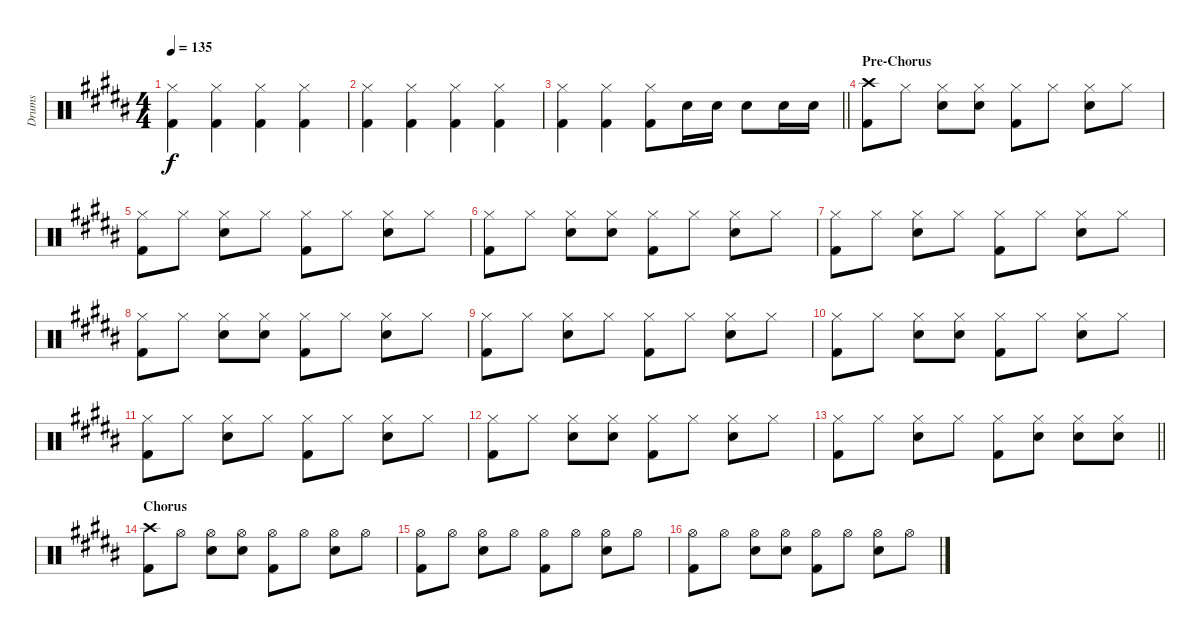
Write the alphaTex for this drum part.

\track ("Drums" "Drums") {instrument percussion}
\staff {score}
\articulation defaults
\ts (4 4)
\tempo 135
\clef neutral
\ks b
("Hi-Hat (closed)" "Kick (hit) 2").4{dy f} ("Hi-Hat (closed)" "Kick (hit) 2").4 ("Hi-Hat (closed)" "Kick (hit) 2").4 ("Hi-Hat (closed)" "Kick (hit) 2").4 |
("Hi-Hat (closed)" "Kick (hit) 2").4 ("Hi-Hat (closed)" "Kick (hit) 2").4 ("Hi-Hat (closed)" "Kick (hit) 2").4 ("Hi-Hat (closed)" "Kick (hit) 2").4 |
\barLineRight lightlight
("Hi-Hat (closed)" "Kick (hit) 2").4 ("Hi-Hat (closed)" "Kick (hit) 2").4 ("Hi-Hat (closed)" "Kick (hit) 2").8 "Snare (hit) 2".16 "Snare (hit) 2".16 "Snare (hit) 2".8 "Snare (hit) 2".16 "Snare (hit) 2".16 |
\section ("" "Pre-Chorus")
("Crash high (hit)" "Kick (hit) 2").8 "Hi-Hat (closed)".8 ("Hi-Hat (closed)" "Snare (hit) 2").8 ("Hi-Hat (closed)" "Snare (hit) 2").8 ("Hi-Hat (closed)" "Kick (hit) 2").8 "Hi-Hat (closed)".8 ("Hi-Hat (closed)" "Snare (hit) 2").8 "Hi-Hat (closed)".8 |
("Hi-Hat (closed)" "Kick (hit) 2").8 "Hi-Hat (closed)".8 ("Hi-Hat (closed)" "Snare (hit) 2").8 "Hi-Hat (closed)".8 ("Hi-Hat (closed)" "Kick (hit) 2").8 "Hi-Hat (closed)".8 ("Hi-Hat (closed)" "Snare (hit) 2").8 "Hi-Hat (closed)".8 |
("Hi-Hat (closed)" "Kick (hit) 2").8 "Hi-Hat (closed)".8 ("Hi-Hat (closed)" "Snare (hit) 2").8 ("Hi-Hat (closed)" "Snare (hit) 2").8 ("Hi-Hat (closed)" "Kick (hit) 2").8 "Hi-Hat (closed)".8 ("Hi-Hat (closed)" "Snare (hit) 2").8 "Hi-Hat (closed)".8 |
("Hi-Hat (closed)" "Kick (hit) 2").8 "Hi-Hat (closed)".8 ("Hi-Hat (closed)" "Snare (hit) 2").8 "Hi-Hat (closed)".8 ("Hi-Hat (closed)" "Kick (hit) 2").8 "Hi-Hat (closed)".8 ("Hi-Hat (closed)" "Snare (hit) 2").8 "Hi-Hat (closed)".8 |
("Hi-Hat (closed)" "Kick (hit) 2").8 "Hi-Hat (closed)".8 ("Hi-Hat (closed)" "Snare (hit) 2").8 ("Hi-Hat (closed)" "Snare (hit) 2").8 ("Hi-Hat (closed)" "Kick (hit) 2").8 "Hi-Hat (closed)".8 ("Hi-Hat (closed)" "Snare (hit) 2").8 "Hi-Hat (closed)".8 |
("Hi-Hat (closed)" "Kick (hit) 2").8 "Hi-Hat (closed)".8 ("Hi-Hat (closed)" "Snare (hit) 2").8 "Hi-Hat (closed)".8 ("Hi-Hat (closed)" "Kick (hit) 2").8 "Hi-Hat (closed)".8 ("Hi-Hat (closed)" "Snare (hit) 2").8 "Hi-Hat (closed)".8 |
("Hi-Hat (closed)" "Kick (hit) 2").8 "Hi-Hat (closed)".8 ("Hi-Hat (closed)" "Snare (hit) 2").8 ("Hi-Hat (closed)" "Snare (hit) 2").8 ("Hi-Hat (closed)" "Kick (hit) 2").8 "Hi-Hat (closed)".8 ("Hi-Hat (closed)" "Snare (hit) 2").8 "Hi-Hat (closed)".8 |
("Hi-Hat (closed)" "Kick (hit) 2").8 "Hi-Hat (closed)".8 ("Hi-Hat (closed)" "Snare (hit) 2").8 "Hi-Hat (closed)".8 ("Hi-Hat (closed)" "Kick (hit) 2").8 "Hi-Hat (closed)".8 ("Hi-Hat (closed)" "Snare (hit) 2").8 "Hi-Hat (closed)".8 |
("Hi-Hat (closed)" "Kick (hit) 2").8 "Hi-Hat (closed)".8 ("Hi-Hat (closed)" "Snare (hit) 2").8 ("Hi-Hat (closed)" "Snare (hit) 2").8 ("Hi-Hat (closed)" "Kick (hit) 2").8 "Hi-Hat (closed)".8 ("Hi-Hat (closed)" "Snare (hit) 2").8 "Hi-Hat (closed)".8 |
\barLineRight lightlight
("Hi-Hat (closed)" "Kick (hit) 2").8 "Hi-Hat (closed)".8 ("Hi-Hat (closed)" "Snare (hit) 2").8 "Hi-Hat (closed)".8 ("Hi-Hat (closed)" "Kick (hit) 2").8 ("Hi-Hat (closed)" "Snare (hit) 2").8 ("Hi-Hat (closed)" "Snare (hit) 2").8 ("Hi-Hat (closed)" "Snare (hit) 2").8 |
\section ("" "Chorus")
("Crash high (hit)" "Kick (hit) 2").8 "Hi-Hat (open)".8 ("Hi-Hat (open)" "Snare (hit) 2").8 ("Hi-Hat (open)" "Snare (hit) 2").8 ("Hi-Hat (open)" "Kick (hit) 2").8 "Hi-Hat (open)".8 ("Hi-Hat (open)" "Snare (hit) 2").8 "Hi-Hat (open)".8 |
("Hi-Hat (open)" "Kick (hit) 2").8 "Hi-Hat (open)".8 ("Hi-Hat (open)" "Snare (hit) 2").8 "Hi-Hat (open)".8 ("Hi-Hat (open)" "Kick (hit) 2").8 "Hi-Hat (open)".8 ("Hi-Hat (open)" "Snare (hit) 2").8 "Hi-Hat (open)".8 |
("Hi-Hat (open)" "Kick (hit) 2").8 "Hi-Hat (open)".8 ("Hi-Hat (open)" "Snare (hit) 2").8 ("Hi-Hat (open)" "Snare (hit) 2").8 ("Hi-Hat (open)" "Kick (hit) 2").8 "Hi-Hat (open)".8 ("Hi-Hat (open)" "Snare (hit) 2").8 "Hi-Hat (open)".8
